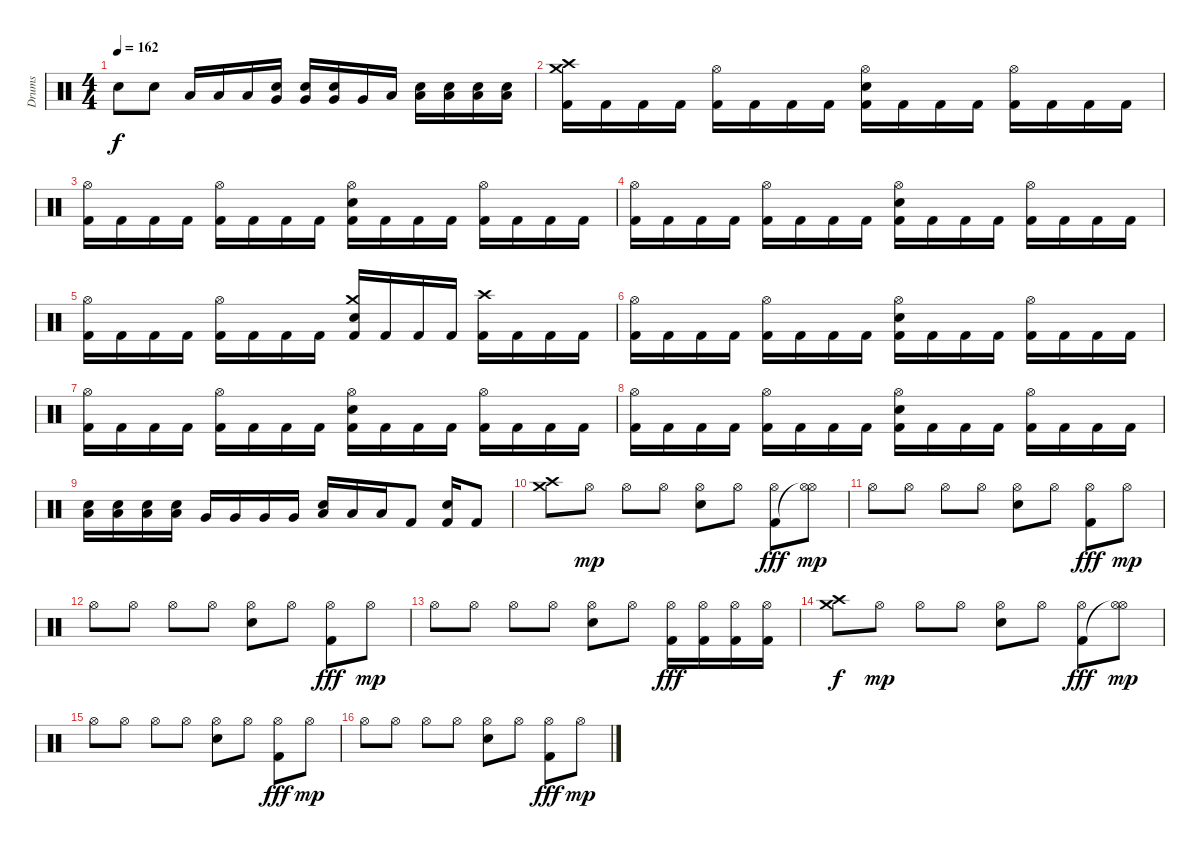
\track ("Drums" "Drums") {instrument percussion}
\staff {score}
\articulation defaults
\ts (4 4)
\tempo 162
\clef neutral
\ks c "Electric Snare (hit)".8{dy f} "Electric Snare (hit)".8 "Low Tom (hit)".16 "Low Tom (hit)".16 "Low Tom (hit)".16
("Electric Snare (hit)" "Very Low Tom (hit)").16 ("Electric Snare (hit)" "Very Low Tom (hit)").16 ("Electric Snare (hit)" "Very Low Tom (hit)").16 "Very Low Tom (hit)".16 "Low Floor Tom (hit)".16 ("Electric Snare (hit)" "Low Floor Tom (hit)").16 ("Electric Snare (hit)" "Low Floor Tom (hit)").16 ("Electric Snare (hit)" "Low Floor Tom (hit)").16 ("Electric Snare (hit)" "Low Floor Tom (hit)").16 |
("Crash medium (hit)" "Crash high (hit)" "Kick (hit) 2").16 "Kick (hit) 2".16 "Kick (hit) 2".16 "Kick (hit) 2".16 ("Hi-Hat (open)" "Kick (hit) 2").16 "Kick (hit) 2".16 "Kick (hit) 2".16 "Kick (hit) 2".16 ("Electric Snare (hit)" "Hi-Hat (open)" "Kick (hit) 2").16 "Kick (hit) 2".16 "Kick (hit) 2".16 "Kick (hit) 2".16 ("Hi-Hat (open)" "Kick (hit) 2").16 "Kick (hit) 2".16 "Kick (hit) 2".16 "Kick (hit) 2".16 |
("Hi-Hat (open)" "Kick (hit) 2").16 "Kick (hit) 2".16 "Kick (hit) 2".16 "Kick (hit) 2".16 ("Hi-Hat (open)" "Kick (hit) 2").16 "Kick (hit) 2".16 "Kick (hit) 2".16 "Kick (hit) 2".16 ("Electric Snare (hit)" "Hi-Hat (open)" "Kick (hit) 2").16 "Kick (hit) 2".16 "Kick (hit) 2".16 "Kick (hit) 2".16 ("Hi-Hat (open)" "Kick (hit) 2").16 "Kick (hit) 2".16 "Kick (hit) 2".16 "Kick (hit) 2".16 |
("Hi-Hat (open)" "Kick (hit) 2").16 "Kick (hit) 2".16 "Kick (hit) 2".16 "Kick (hit) 2".16 ("Hi-Hat (open)" "Kick (hit) 2").16 "Kick (hit) 2".16 "Kick (hit) 2".16 "Kick (hit) 2".16 ("Electric Snare (hit)" "Hi-Hat (open)" "Kick (hit) 2").16 "Kick (hit) 2".16 "Kick (hit) 2".16 "Kick (hit) 2".16 ("Hi-Hat (open)" "Kick (hit) 2").16 "Kick (hit) 2".16 "Kick (hit) 2".16 "Kick (hit) 2".16 |
("Hi-Hat (open)" "Kick (hit) 2").16 "Kick (hit) 2".16 "Kick (hit) 2".16 "Kick (hit) 2".16 ("Hi-Hat (open)" "Kick (hit) 2").16 "Kick (hit) 2".16 "Kick (hit) 2".16 "Kick (hit) 2".16 ("Crash medium (hit)" "Electric Snare (hit)" "Kick (hit) 2").16 "Kick (hit) 2".16 "Kick (hit) 2".16 "Kick (hit) 2".16 ("Crash high (hit)" "Kick (hit) 2").16 "Kick (hit) 2".16 "Kick (hit) 2".16 "Kick (hit) 2".16 |
("Hi-Hat (open)" "Kick (hit) 2").16 "Kick (hit) 2".16 "Kick (hit) 2".16 "Kick (hit) 2".16 ("Hi-Hat (open)" "Kick (hit) 2").16 "Kick (hit) 2".16 "Kick (hit) 2".16 "Kick (hit) 2".16 ("Electric Snare (hit)" "Hi-Hat (open)" "Kick (hit) 2").16 "Kick (hit) 2".16 "Kick (hit) 2".16 "Kick (hit) 2".16 ("Hi-Hat (open)" "Kick (hit) 2").16 "Kick (hit) 2".16 "Kick (hit) 2".16 "Kick (hit) 2".16 |
("Hi-Hat (open)" "Kick (hit) 2").16 "Kick (hit) 2".16 "Kick (hit) 2".16 "Kick (hit) 2".16 ("Hi-Hat (open)" "Kick (hit) 2").16 "Kick (hit) 2".16 "Kick (hit) 2".16 "Kick (hit) 2".16 ("Electric Snare (hit)" "Hi-Hat (open)" "Kick (hit) 2").16 "Kick (hit) 2".16 "Kick (hit) 2".16 "Kick (hit) 2".16 ("Hi-Hat (open)" "Kick (hit) 2").16 "Kick (hit) 2".16 "Kick (hit) 2".16 "Kick (hit) 2".16 |
("Hi-Hat (open)" "Kick (hit) 2").16 "Kick (hit) 2".16 "Kick (hit) 2".16 "Kick (hit) 2".16 ("Hi-Hat (open)" "Kick (hit) 2").16 "Kick (hit) 2".16 "Kick (hit) 2".16 "Kick (hit) 2".16 ("Electric Snare (hit)" "Hi-Hat (open)" "Kick (hit) 2").16 "Kick (hit) 2".16 "Kick (hit) 2".16 "Kick (hit) 2".16 ("Hi-Hat (open)" "Kick (hit) 2").16 "Kick (hit) 2".16 "Kick (hit) 2".16 "Kick (hit) 2".16 |
("Electric Snare (hit)" "Low Tom (hit)").16 ("Electric Snare (hit)" "Low Tom (hit)").16 ("Electric Snare (hit)" "Low Tom (hit)").16 ("Electric Snare (hit)" "Low Tom (hit)").16 "Very Low Tom (hit)".16 "Very Low Tom (hit)".16 "Very Low Tom (hit)".16 "Very Low Tom (hit)".16 ("Electric Snare (hit)" "Low Floor Tom (hit)").16 "Low Floor Tom (hit)".16 "Low Floor Tom (hit)".16 "Kick (hit) 2".8 ("Electric Snare (hit)" "Kick (hit) 2").16 "Kick (hit) 2".8 |
("Crash high (hit)" "Crash medium (hit)").8 "Hi-Hat (open)".8{dy mp} "Hi-Hat (open)".8 "Hi-Hat (open)".8 ("Electric Snare (hit)" "Hi-Hat (open)").8 "Hi-Hat (open)".8 ("Hi-Hat (open)" "Kick (hit) 2").8{dy fff} ("Hi-Hat (open)" "Hi-Hat (open)"{t}).8{dy mp} |
"Hi-Hat (open)".8 "Hi-Hat (open)".8 "Hi-Hat (open)".8 "Hi-Hat (open)".8 ("Electric Snare (hit)" "Hi-Hat (open)").8 "Hi-Hat (open)".8 ("Hi-Hat (open)" "Kick (hit) 2").8{dy fff} "Hi-Hat (open)".8{dy mp} |
"Hi-Hat (open)".8 "Hi-Hat (open)".8 "Hi-Hat (open)".8 "Hi-Hat (open)".8 ("Electric Snare (hit)" "Hi-Hat (open)").8 "Hi-Hat (open)".8 ("Hi-Hat (open)" "Kick (hit) 2").8{dy fff} "Hi-Hat (open)".8{dy mp} |
"Hi-Hat (open)".8 "Hi-Hat (open)".8 "Hi-Hat (open)".8 "Hi-Hat (open)".8 ("Electric Snare (hit)" "Hi-Hat (open)").8 "Hi-Hat (open)".8 ("Hi-Hat (open)" "Kick (hit) 2").16{dy fff} ("Hi-Hat (open)" "Kick (hit) 2").16 ("Hi-Hat (open)" "Kick (hit) 2").16 ("Hi-Hat (open)" "Kick (hit) 2").16 |
("Crash high (hit)" "Crash medium (hit)").8{dy f} "Hi-Hat (open)".8{dy mp} "Hi-Hat (open)".8 "Hi-Hat (open)".8 ("Electric Snare (hit)" "Hi-Hat (open)").8 "Hi-Hat (open)".8 ("Hi-Hat (open)" "Kick (hit) 2").8{dy fff} ("Hi-Hat (open)" "Hi-Hat (open)"{t}).8{dy mp} |
"Hi-Hat (open)".8 "Hi-Hat (open)".8 "Hi-Hat (open)".8 "Hi-Hat (open)".8 ("Electric Snare (hit)" "Hi-Hat (open)").8 "Hi-Hat (open)".8 ("Hi-Hat (open)" "Kick (hit) 2").8{dy fff} "Hi-Hat (open)".8{dy mp} |
"Hi-Hat (open)".8 "Hi-Hat (open)".8 "Hi-Hat (open)".8 "Hi-Hat (open)".8 ("Electric Snare (hit)" "Hi-Hat (open)").8 "Hi-Hat (open)".8 ("Hi-Hat (open)" "Kick (hit) 2").8{dy fff} "Hi-Hat (open)".8{dy mp}
